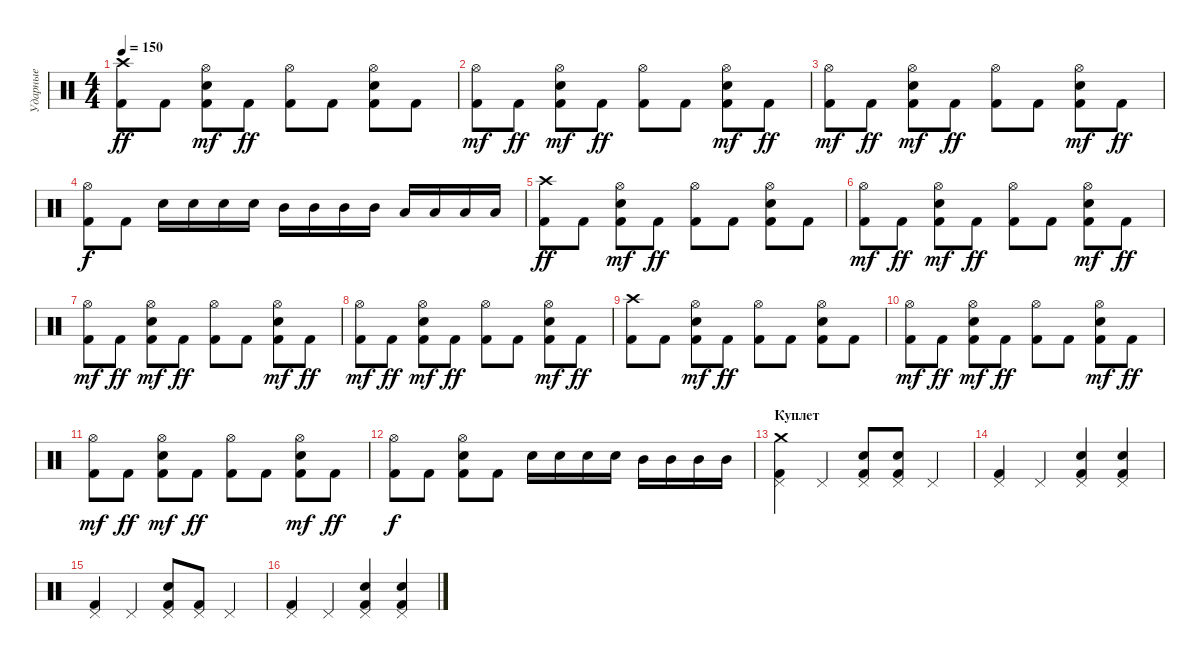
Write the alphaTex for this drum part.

\track ("Ударные" "Ударные") {instrument percussion}
\staff {score}
\articulation defaults
\ts (4 4)
\tempo 150
\clef neutral
\ks c
("Crash high (hit)" "Kick (hit) 2").8{dy ff} "Kick (hit) 2".8 ("Kick (hit) 2" "Electric Snare (hit)" "Hi-Hat (open)").8{dy mf} "Kick (hit) 2".8{dy ff} ("Hi-Hat (open)" "Kick (hit) 2").8 "Kick (hit) 2".8 ("Kick (hit) 2" "Hi-Hat (open)" "Electric Snare (hit)").8 "Kick (hit) 2".8 |
("Kick (hit) 2" "Hi-Hat (open)").8{dy mf} "Kick (hit) 2".8{dy ff} ("Electric Snare (hit)" "Kick (hit) 2" "Hi-Hat (open)").8{dy mf} "Kick (hit) 2".8{dy ff} ("Hi-Hat (open)" "Kick (hit) 2").8 "Kick (hit) 2".8 ("Electric Snare (hit)" "Kick (hit) 2" "Hi-Hat (open)").8{dy mf} "Kick (hit) 2".8{dy ff} |
("Kick (hit) 2" "Hi-Hat (open)").8{dy mf} "Kick (hit) 2".8{dy ff} ("Electric Snare (hit)" "Kick (hit) 2" "Hi-Hat (open)").8{dy mf} "Kick (hit) 2".8{dy ff} ("Hi-Hat (open)" "Kick (hit) 2").8 "Kick (hit) 2".8 ("Electric Snare (hit)" "Kick (hit) 2" "Hi-Hat (open)").8{dy mf} "Kick (hit) 2".8{dy ff} |
("Hi-Hat (open)" "Kick (hit) 2").8{dy f} "Kick (hit) 2".8 "Electric Snare (hit)".16 "Electric Snare (hit)".16 "Electric Snare (hit)".16 "Electric Snare (hit)".16 "Mid Tom (hit)".16 "Mid Tom (hit)".16 "Mid Tom (hit)".16 "Mid Tom (hit)".16 "Low Tom (hit)".16 "Low Tom (hit)".16 "Low Tom (hit)".16 "Low Tom (hit)".16 |
("Crash high (hit)" "Kick (hit) 2").8{dy ff} "Kick (hit) 2".8 ("Kick (hit) 2" "Electric Snare (hit)" "Hi-Hat (open)").8{dy mf} "Kick (hit) 2".8{dy ff} ("Hi-Hat (open)" "Kick (hit) 2").8 "Kick (hit) 2".8 ("Kick (hit) 2" "Hi-Hat (open)" "Electric Snare (hit)").8 "Kick (hit) 2".8 |
("Kick (hit) 2" "Hi-Hat (open)").8{dy mf} "Kick (hit) 2".8{dy ff} ("Electric Snare (hit)" "Kick (hit) 2" "Hi-Hat (open)").8{dy mf} "Kick (hit) 2".8{dy ff} ("Hi-Hat (open)" "Kick (hit) 2").8 "Kick (hit) 2".8 ("Electric Snare (hit)" "Kick (hit) 2" "Hi-Hat (open)").8{dy mf} "Kick (hit) 2".8{dy ff} |
("Kick (hit) 2" "Hi-Hat (open)").8{dy mf} "Kick (hit) 2".8{dy ff} ("Electric Snare (hit)" "Kick (hit) 2" "Hi-Hat (open)").8{dy mf} "Kick (hit) 2".8{dy ff} ("Hi-Hat (open)" "Kick (hit) 2").8 "Kick (hit) 2".8 ("Electric Snare (hit)" "Kick (hit) 2" "Hi-Hat (open)").8{dy mf} "Kick (hit) 2".8{dy ff} |
("Kick (hit) 2" "Hi-Hat (open)").8{dy mf} "Kick (hit) 2".8{dy ff} ("Electric Snare (hit)" "Kick (hit) 2" "Hi-Hat (open)").8{dy mf} "Kick (hit) 2".8{dy ff} ("Hi-Hat (open)" "Kick (hit) 2").8 "Kick (hit) 2".8 ("Electric Snare (hit)" "Kick (hit) 2" "Hi-Hat (open)").8{dy mf} "Kick (hit) 2".8{dy ff} |
("Crash high (hit)" "Kick (hit) 2").8 "Kick (hit) 2".8 ("Kick (hit) 2" "Electric Snare (hit)" "Hi-Hat (open)").8{dy mf} "Kick (hit) 2".8{dy ff} ("Hi-Hat (open)" "Kick (hit) 2").8 "Kick (hit) 2".8 ("Kick (hit) 2" "Hi-Hat (open)" "Electric Snare (hit)").8 "Kick (hit) 2".8 |
("Kick (hit) 2" "Hi-Hat (open)").8{dy mf} "Kick (hit) 2".8{dy ff} ("Electric Snare (hit)" "Kick (hit) 2" "Hi-Hat (open)").8{dy mf} "Kick (hit) 2".8{dy ff} ("Hi-Hat (open)" "Kick (hit) 2").8 "Kick (hit) 2".8 ("Electric Snare (hit)" "Kick (hit) 2" "Hi-Hat (open)").8{dy mf} "Kick (hit) 2".8{dy ff} |
("Kick (hit) 2" "Hi-Hat (open)").8{dy mf} "Kick (hit) 2".8{dy ff} ("Electric Snare (hit)" "Kick (hit) 2" "Hi-Hat (open)").8{dy mf} "Kick (hit) 2".8{dy ff} ("Hi-Hat (open)" "Kick (hit) 2").8 "Kick (hit) 2".8 ("Electric Snare (hit)" "Kick (hit) 2" "Hi-Hat (open)").8{dy mf} "Kick (hit) 2".8{dy ff} |
("Hi-Hat (open)" "Kick (hit) 2").8{dy f} "Kick (hit) 2".8 ("Kick (hit) 2" "Hi-Hat (open)" "Electric Snare (hit)").8 "Kick (hit) 2".8 "Electric Snare (hit)".16 "Electric Snare (hit)".16 "Electric Snare (hit)".16 "Electric Snare (hit)".16 "Mid Tom (hit)".16 "Mid Tom (hit)".16 "Mid Tom (hit)".16 "Mid Tom (hit)".16 |
\section ("" "Куплет")
("Pedal Hi-Hat (hit)" "Crash medium (hit)" "Kick (hit) 2").4 "Pedal Hi-Hat (hit)".4 ("Pedal Hi-Hat (hit)" "Electric Snare (hit)" "Kick (hit) 2").8 ("Pedal Hi-Hat (hit)" "Electric Snare (hit)" "Kick (hit) 2").8 "Pedal Hi-Hat (hit)".4 |
("Pedal Hi-Hat (hit)" "Kick (hit) 2").4 "Pedal Hi-Hat (hit)".4 ("Pedal Hi-Hat (hit)" "Electric Snare (hit)" "Kick (hit) 2").4 ("Pedal Hi-Hat (hit)" "Electric Snare (hit)" "Kick (hit) 2").4 |
("Pedal Hi-Hat (hit)" "Kick (hit) 2").4 "Pedal Hi-Hat (hit)".4 ("Pedal Hi-Hat (hit)" "Electric Snare (hit)" "Kick (hit) 2").8 ("Pedal Hi-Hat (hit)" "Kick (hit) 2").8 "Pedal Hi-Hat (hit)".4 |
("Pedal Hi-Hat (hit)" "Kick (hit) 2").4 "Pedal Hi-Hat (hit)".4 ("Pedal Hi-Hat (hit)" "Electric Snare (hit)" "Kick (hit) 2").4 ("Pedal Hi-Hat (hit)" "Electric Snare (hit)" "Kick (hit) 2").4
